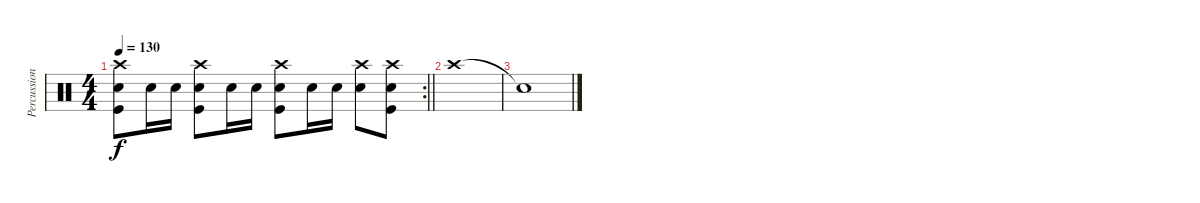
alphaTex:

\track ("Percussion" "Percussion") {instrument percussion}
\staff {score}
\articulation defaults
\rc 2
\ts (4 4)
\tempo 130
\clef neutral
\barLineRight lightlight
\ks c
("Crash high (hit)" "Snare (hit) 2" "Kick (hit)").8{dy f} "Snare (hit) 2".16 "Snare (hit) 2".16 ("Crash high (hit)" "Snare (hit) 2" "Kick (hit)").8 "Snare (hit) 2".16 "Snare (hit) 2".16 ("Crash high (hit)" "Snare (hit) 2" "Kick (hit)").8 "Snare (hit) 2".16 "Snare (hit) 2".16 ("Crash high (hit)" "Snare (hit) 2").8 ("Crash high (hit)" "Snare (hit) 2" "Kick (hit)").8 |
"Crash high (hit)".1 |
"Snare (hit)"{t}.1
